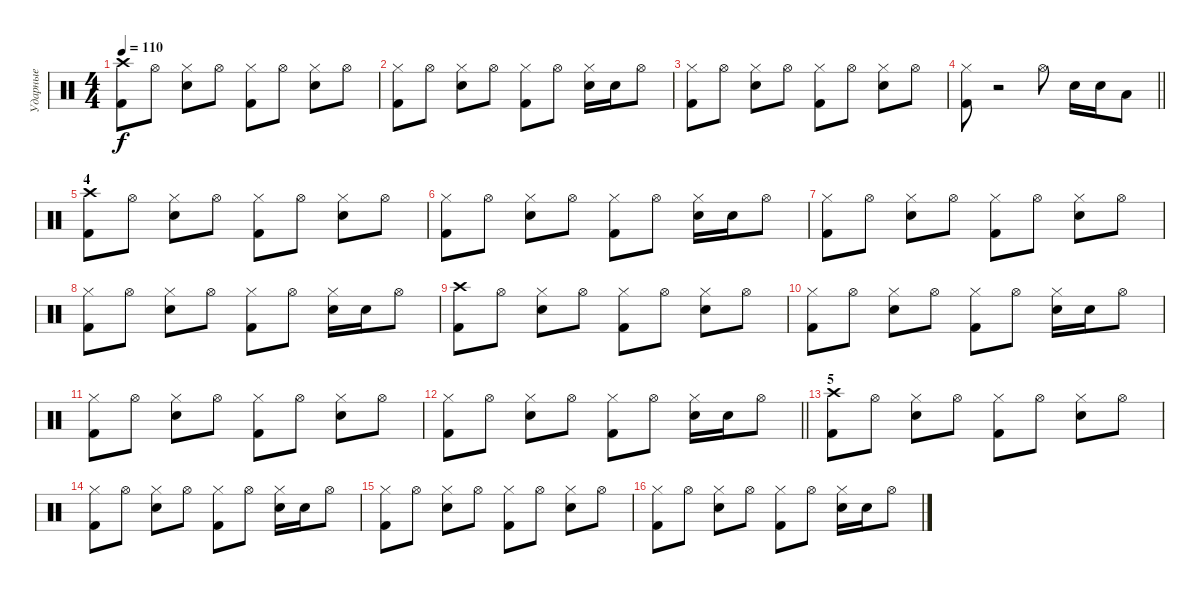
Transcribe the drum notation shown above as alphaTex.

\track ("Ударные" "Ударные") {instrument percussion}
\staff {score}
\articulation defaults
\ts (4 4)
\tempo 110
\clef neutral
\ks c
("Crash high (hit)" "Kick (hit) 2").8{dy f} "Hi-Hat (open)".8 ("Hi-Hat (closed)" "Snare (hit) 2").8 "Hi-Hat (open)".8 ("Hi-Hat (closed)" "Kick (hit) 2").8 "Hi-Hat (open)".8 ("Hi-Hat (closed)" "Snare (hit) 2").8 "Hi-Hat (open)".8 |
("Hi-Hat (closed)" "Kick (hit) 2").8 "Hi-Hat (open)".8 ("Hi-Hat (closed)" "Snare (hit) 2").8 "Hi-Hat (open)".8 ("Hi-Hat (closed)" "Kick (hit) 2").8 "Hi-Hat (open)".8 ("Hi-Hat (closed)" "Snare (hit) 2").16 "Snare (hit) 2".16 "Hi-Hat (open)".8 |
("Hi-Hat (closed)" "Kick (hit) 2").8 "Hi-Hat (open)".8 ("Hi-Hat (closed)" "Snare (hit) 2").8 "Hi-Hat (open)".8 ("Hi-Hat (closed)" "Kick (hit) 2").8 "Hi-Hat (open)".8 ("Hi-Hat (closed)" "Snare (hit) 2").8 "Hi-Hat (open)".8 |
\barLineRight lightlight
("Hi-Hat (closed)" "Kick (hit) 2").8 r.2 "Hi-Hat (open)".8 "Snare (hit) 2".16 "Snare (hit) 2".16 "Low Tom (hit)".8 |
\section ("" "4")
("Crash high (hit)" "Kick (hit) 2").8 "Hi-Hat (open)".8 ("Hi-Hat (closed)" "Snare (hit) 2").8 "Hi-Hat (open)".8 ("Hi-Hat (closed)" "Kick (hit) 2").8 "Hi-Hat (open)".8 ("Hi-Hat (closed)" "Snare (hit) 2").8 "Hi-Hat (open)".8 |
("Hi-Hat (closed)" "Kick (hit) 2").8 "Hi-Hat (open)".8 ("Hi-Hat (closed)" "Snare (hit) 2").8 "Hi-Hat (open)".8 ("Hi-Hat (closed)" "Kick (hit) 2").8 "Hi-Hat (open)".8 ("Hi-Hat (closed)" "Snare (hit) 2").16 "Snare (hit) 2".16 "Hi-Hat (open)".8 |
("Hi-Hat (closed)" "Kick (hit) 2").8 "Hi-Hat (open)".8 ("Hi-Hat (closed)" "Snare (hit) 2").8 "Hi-Hat (open)".8 ("Hi-Hat (closed)" "Kick (hit) 2").8 "Hi-Hat (open)".8 ("Hi-Hat (closed)" "Snare (hit) 2").8 "Hi-Hat (open)".8 |
("Hi-Hat (closed)" "Kick (hit) 2").8 "Hi-Hat (open)".8 ("Hi-Hat (closed)" "Snare (hit) 2").8 "Hi-Hat (open)".8 ("Hi-Hat (closed)" "Kick (hit) 2").8 "Hi-Hat (open)".8 ("Hi-Hat (closed)" "Snare (hit) 2").16 "Snare (hit) 2".16 "Hi-Hat (open)".8 |
("Crash high (hit)" "Kick (hit) 2").8 "Hi-Hat (open)".8 ("Hi-Hat (closed)" "Snare (hit) 2").8 "Hi-Hat (open)".8 ("Hi-Hat (closed)" "Kick (hit) 2").8 "Hi-Hat (open)".8 ("Hi-Hat (closed)" "Snare (hit) 2").8 "Hi-Hat (open)".8 |
("Hi-Hat (closed)" "Kick (hit) 2").8 "Hi-Hat (open)".8 ("Hi-Hat (closed)" "Snare (hit) 2").8 "Hi-Hat (open)".8 ("Hi-Hat (closed)" "Kick (hit) 2").8 "Hi-Hat (open)".8 ("Hi-Hat (closed)" "Snare (hit) 2").16 "Snare (hit) 2".16 "Hi-Hat (open)".8 |
("Hi-Hat (closed)" "Kick (hit) 2").8 "Hi-Hat (open)".8 ("Hi-Hat (closed)" "Snare (hit) 2").8 "Hi-Hat (open)".8 ("Hi-Hat (closed)" "Kick (hit) 2").8 "Hi-Hat (open)".8 ("Hi-Hat (closed)" "Snare (hit) 2").8 "Hi-Hat (open)".8 |
\barLineRight lightlight
("Hi-Hat (closed)" "Kick (hit) 2").8 "Hi-Hat (open)".8 ("Hi-Hat (closed)" "Snare (hit) 2").8 "Hi-Hat (open)".8 ("Hi-Hat (closed)" "Kick (hit) 2").8 "Hi-Hat (open)".8 ("Hi-Hat (closed)" "Snare (hit) 2").16 "Snare (hit) 2".16 "Hi-Hat (open)".8 |
\section ("" "5")
("Crash high (hit)" "Kick (hit) 2").8 "Hi-Hat (open)".8 ("Hi-Hat (closed)" "Snare (hit) 2").8 "Hi-Hat (open)".8 ("Hi-Hat (closed)" "Kick (hit) 2").8 "Hi-Hat (open)".8 ("Hi-Hat (closed)" "Snare (hit) 2").8 "Hi-Hat (open)".8 |
("Hi-Hat (closed)" "Kick (hit) 2").8 "Hi-Hat (open)".8 ("Hi-Hat (closed)" "Snare (hit) 2").8 "Hi-Hat (open)".8 ("Hi-Hat (closed)" "Kick (hit) 2").8 "Hi-Hat (open)".8 ("Hi-Hat (closed)" "Snare (hit) 2").16 "Snare (hit) 2".16 "Hi-Hat (open)".8 |
("Hi-Hat (closed)" "Kick (hit) 2").8 "Hi-Hat (open)".8 ("Hi-Hat (closed)" "Snare (hit) 2").8 "Hi-Hat (open)".8 ("Hi-Hat (closed)" "Kick (hit) 2").8 "Hi-Hat (open)".8 ("Hi-Hat (closed)" "Snare (hit) 2").8 "Hi-Hat (open)".8 |
("Hi-Hat (closed)" "Kick (hit) 2").8 "Hi-Hat (open)".8 ("Hi-Hat (closed)" "Snare (hit) 2").8 "Hi-Hat (open)".8 ("Hi-Hat (closed)" "Kick (hit) 2").8 "Hi-Hat (open)".8 ("Hi-Hat (closed)" "Snare (hit) 2").16 "Snare (hit) 2".16 "Hi-Hat (open)".8
